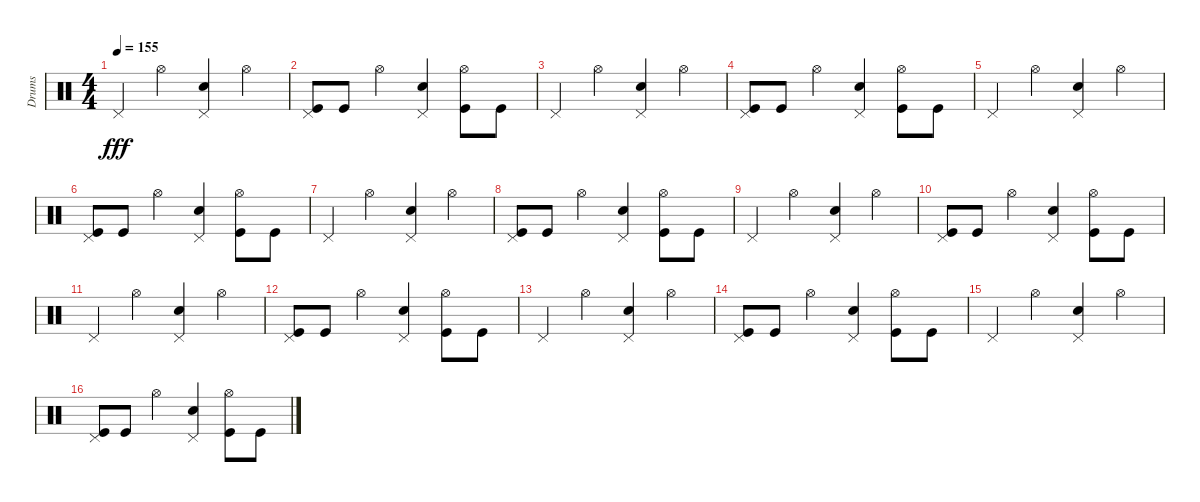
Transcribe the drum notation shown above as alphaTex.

\track ("Drums               " "Drums     ") {instrument percussion}
\staff {score}
\articulation defaults
\ts (4 4)
\tempo 155
\clef neutral
\ks c "Pedal Hi-Hat (hit)".4{dy fff} "Hi-Hat (open)".4
("Pedal Hi-Hat (hit)" "Snare (hit) 2").4 "Hi-Hat (open)".4 |
("Kick (hit)" "Pedal Hi-Hat (hit)").8 "Kick (hit)".8 "Hi-Hat (open)".4 ("Snare (hit) 2" "Pedal Hi-Hat (hit)").4 ("Kick (hit)" "Hi-Hat (open)").8 "Kick (hit)".8 |
"Pedal Hi-Hat (hit)".4 "Hi-Hat (open)".4 ("Pedal Hi-Hat (hit)" "Snare (hit) 2").4 "Hi-Hat (open)".4 |
("Kick (hit)" "Pedal Hi-Hat (hit)").8 "Kick (hit)".8 "Hi-Hat (open)".4 ("Snare (hit) 2" "Pedal Hi-Hat (hit)").4 ("Kick (hit)" "Hi-Hat (open)").8 "Kick (hit)".8 |
"Pedal Hi-Hat (hit)".4 "Hi-Hat (open)".4 ("Pedal Hi-Hat (hit)" "Snare (hit) 2").4 "Hi-Hat (open)".4 |
("Kick (hit)" "Pedal Hi-Hat (hit)").8 "Kick (hit)".8 "Hi-Hat (open)".4 ("Snare (hit) 2" "Pedal Hi-Hat (hit)").4 ("Kick (hit)" "Hi-Hat (open)").8 "Kick (hit)".8 |
"Pedal Hi-Hat (hit)".4 "Hi-Hat (open)".4 ("Pedal Hi-Hat (hit)" "Snare (hit) 2").4 "Hi-Hat (open)".4 |
("Kick (hit)" "Pedal Hi-Hat (hit)").8 "Kick (hit)".8 "Hi-Hat (open)".4 ("Snare (hit) 2" "Pedal Hi-Hat (hit)").4 ("Kick (hit)" "Hi-Hat (open)").8 "Kick (hit)".8 |
"Pedal Hi-Hat (hit)".4 "Hi-Hat (open)".4 ("Pedal Hi-Hat (hit)" "Snare (hit) 2").4 "Hi-Hat (open)".4 |
("Kick (hit)" "Pedal Hi-Hat (hit)").8 "Kick (hit)".8 "Hi-Hat (open)".4 ("Snare (hit) 2" "Pedal Hi-Hat (hit)").4 ("Kick (hit)" "Hi-Hat (open)").8 "Kick (hit)".8 |
"Pedal Hi-Hat (hit)".4 "Hi-Hat (open)".4 ("Pedal Hi-Hat (hit)" "Snare (hit) 2").4 "Hi-Hat (open)".4 |
("Kick (hit)" "Pedal Hi-Hat (hit)").8 "Kick (hit)".8 "Hi-Hat (open)".4 ("Snare (hit) 2" "Pedal Hi-Hat (hit)").4 ("Kick (hit)" "Hi-Hat (open)").8 "Kick (hit)".8 |
"Pedal Hi-Hat (hit)".4 "Hi-Hat (open)".4 ("Pedal Hi-Hat (hit)" "Snare (hit) 2").4 "Hi-Hat (open)".4 |
("Kick (hit)" "Pedal Hi-Hat (hit)").8 "Kick (hit)".8 "Hi-Hat (open)".4 ("Snare (hit) 2" "Pedal Hi-Hat (hit)").4 ("Kick (hit)" "Hi-Hat (open)").8 "Kick (hit)".8 |
"Pedal Hi-Hat (hit)".4 "Hi-Hat (open)".4 ("Pedal Hi-Hat (hit)" "Snare (hit) 2").4 "Hi-Hat (open)".4 |
("Kick (hit)" "Pedal Hi-Hat (hit)").8 "Kick (hit)".8 "Hi-Hat (open)".4 ("Snare (hit) 2" "Pedal Hi-Hat (hit)").4 ("Kick (hit)" "Hi-Hat (open)").8 "Kick (hit)".8
